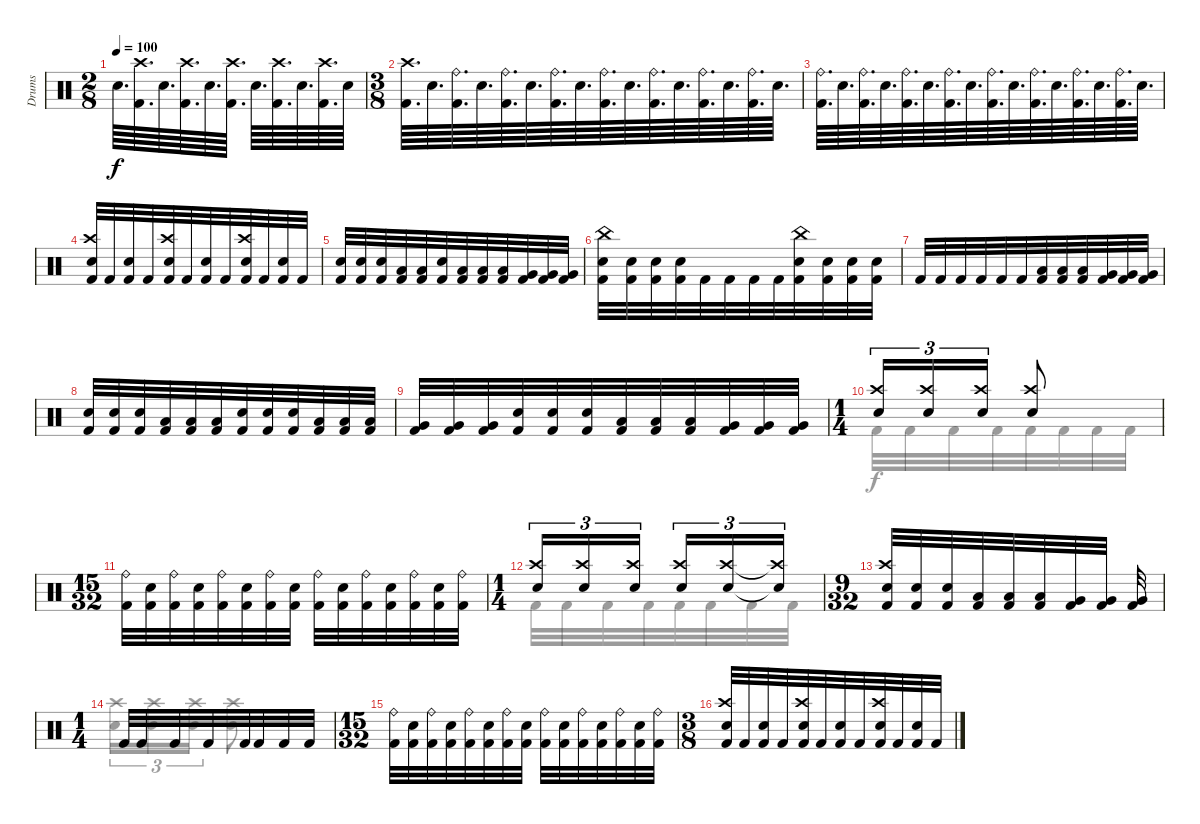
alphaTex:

\track ("Drums" "Drums") {instrument percussion}
\staff {score}
\articulation defaults
\voice
\ts (2 8)
\tempo 100
\clef neutral
\ks c "Electric Snare (hit)".64{d dy f}
("Crash high (hit)" "Kick (hit) 2").64{d} "Electric Snare (hit)".64{d} ("Crash high (hit)" "Kick (hit) 2").64{d} "Electric Snare (hit)".64{d} ("Crash high (hit)" "Kick (hit) 2").64{d} "Electric Snare (hit)".64{d} ("Crash high (hit)" "Kick (hit) 2").64{d} "Electric Snare (hit)".64{d} ("Crash high (hit)" "Kick (hit) 2").64{d} "Electric Snare (hit)".64 |
\ts (3 8)
("Crash high (hit)" "Kick (hit) 2").64{d} "Electric Snare (hit)".64{d} ("Ride (bell)" "Kick (hit) 2").64{d} "Electric Snare (hit)".64{d} ("Ride (bell)" "Kick (hit) 2").64{d} "Electric Snare (hit)".64{d} ("Ride (bell)" "Kick (hit) 2").64{d} "Electric Snare (hit)".64{d} ("Ride (bell)" "Kick (hit) 2").64{d} "Electric Snare (hit)".64{d} ("Ride (bell)" "Kick (hit) 2").64{d} "Electric Snare (hit)".64{d} ("Ride (bell)" "Kick (hit) 2").64{d} "Electric Snare (hit)".64{d} ("Ride (bell)" "Kick (hit) 2").64{d} "Electric Snare (hit)".64{d} |
("Ride (bell)" "Kick (hit) 2").64{d} "Electric Snare (hit)".64{d} ("Ride (bell)" "Kick (hit) 2").64{d} "Electric Snare (hit)".64{d} ("Ride (bell)" "Kick (hit) 2").64{d} "Electric Snare (hit)".64{d} ("Ride (bell)" "Kick (hit) 2").64{d} "Electric Snare (hit)".64{d} ("Ride (bell)" "Kick (hit) 2").64{d} "Electric Snare (hit)".64{d} ("Ride (bell)" "Kick (hit) 2").64{d} "Electric Snare (hit)".64{d} ("Ride (bell)" "Kick (hit) 2").64{d} "Electric Snare (hit)".64{d} ("Ride (bell)" "Kick (hit) 2").64{d} "Electric Snare (hit)".64{d} |
("Crash high (hit)" "Electric Snare (hit)" "Kick (hit) 2").32 "Kick (hit) 2".32 ("Electric Snare (hit)" "Kick (hit) 2").32 "Kick (hit) 2".32 ("Crash high (hit)" "Electric Snare (hit)" "Kick (hit) 2").32 "Kick (hit) 2".32 ("Electric Snare (hit)" "Kick (hit) 2").32 "Kick (hit) 2".32 ("Crash high (hit)" "Electric Snare (hit)" "Kick (hit) 2").32 "Kick (hit) 2".32 ("Electric Snare (hit)" "Kick (hit) 2").32 "Kick (hit) 2".32 |
("Electric Snare (hit)" "Kick (hit) 2").32 ("Electric Snare (hit)" "Kick (hit) 2").32 ("Electric Snare (hit)" "Kick (hit) 2").32 ("Low Tom (hit)" "Kick (hit) 2").32 ("Low Tom (hit)" "Kick (hit) 2").32 ("Electric Snare (hit)" "Kick (hit) 2").32 ("Low Tom (hit)" "Kick (hit) 2").32 ("Low Tom (hit)" "Kick (hit) 2").32 ("Low Tom (hit)" "Kick (hit) 2").32 ("Very Low Tom (hit)" "Kick (hit) 2").32 ("Very Low Tom (hit)" "Kick (hit) 2").32 ("Very Low Tom (hit)" "Kick (hit) 2").32 |
("China (hit)" "Electric Snare (hit)" "Kick (hit) 2").32 ("Electric Snare (hit)" "Kick (hit) 2").32 ("Electric Snare (hit)" "Kick (hit) 2").32 ("Electric Snare (hit)" "Kick (hit) 2").32 "Kick (hit) 2".32 "Kick (hit) 2".32 "Kick (hit) 2".32 "Kick (hit) 2".32 ("China (hit)" "Electric Snare (hit)" "Kick (hit) 2").32 ("Electric Snare (hit)" "Kick (hit) 2").32 ("Electric Snare (hit)" "Kick (hit) 2").32 ("Electric Snare (hit)" "Kick (hit) 2").32 |
"Kick (hit) 2".32 "Kick (hit) 2".32 "Kick (hit) 2".32 "Kick (hit) 2".32 "Kick (hit) 2".32 "Kick (hit) 2".32 ("Low Tom (hit)" "Kick (hit) 2").32 ("Low Tom (hit)" "Kick (hit) 2").32 ("Low Tom (hit)" "Kick (hit) 2").32 ("Very Low Tom (hit)" "Kick (hit) 2").32 ("Very Low Tom (hit)" "Kick (hit) 2").32 ("Very Low Tom (hit)" "Kick (hit) 2").32 |
("Electric Snare (hit)" "Kick (hit) 2").32 ("Electric Snare (hit)" "Kick (hit) 2").32 ("Electric Snare (hit)" "Kick (hit) 2").32 ("Low Tom (hit)" "Kick (hit) 2").32 ("Low Tom (hit)" "Kick (hit) 2").32 ("Low Tom (hit)" "Kick (hit) 2").32 ("Electric Snare (hit)" "Kick (hit) 2").32 ("Electric Snare (hit)" "Kick (hit) 2").32 ("Electric Snare (hit)" "Kick (hit) 2").32 ("Low Tom (hit)" "Kick (hit) 2").32 ("Low Tom (hit)" "Kick (hit) 2").32 ("Low Tom (hit)" "Kick (hit) 2").32 |
("Very Low Tom (hit)" "Kick (hit) 2").32 ("Very Low Tom (hit)" "Kick (hit) 2").32 ("Very Low Tom (hit)" "Kick (hit) 2").32 ("Electric Snare (hit)" "Kick (hit) 2").32 ("Electric Snare (hit)" "Kick (hit) 2").32 ("Electric Snare (hit)" "Kick (hit) 2").32 ("Low Tom (hit)" "Kick (hit) 2").32 ("Low Tom (hit)" "Kick (hit) 2").32 ("Low Tom (hit)" "Kick (hit) 2").32 ("Very Low Tom (hit)" "Kick (hit) 2").32 ("Very Low Tom (hit)" "Kick (hit) 2").32 ("Very Low Tom (hit)" "Kick (hit) 2").32 |
\ts (1 4)
("Crash high (hit)" "Electric Snare (hit)").16{tu (3 2)} ("Crash high (hit)" "Electric Snare (hit)").16{tu (3 2)} ("Crash high (hit)" "Electric Snare (hit)").16{tu (3 2)} ("Crash high (hit)" "Electric Snare (hit)").8 |
\ts (15 32)
("Ride (bell)" "Kick (hit) 2").32 ("Electric Snare (hit)" "Kick (hit) 2").32 ("Ride (bell)" "Kick (hit) 2").32 ("Electric Snare (hit)" "Kick (hit) 2").32 ("Ride (bell)" "Kick (hit) 2").32 ("Electric Snare (hit)" "Kick (hit) 2").32 ("Ride (bell)" "Kick (hit) 2").32 ("Electric Snare (hit)" "Kick (hit) 2").32 ("Ride (bell)" "Kick (hit) 2").32 ("Electric Snare (hit)" "Kick (hit) 2").32 ("Ride (bell)" "Kick (hit) 2").32 ("Electric Snare (hit)" "Kick (hit) 2").32 ("Ride (bell)" "Kick (hit) 2").32 ("Electric Snare (hit)" "Kick (hit) 2").32 ("Ride (bell)" "Kick (hit) 2").32 |
\ts (1 4)
("Crash high (hit)" "Electric Snare (hit)").16{tu (3 2)} ("Crash high (hit)" "Electric Snare (hit)").16{tu (3 2)} ("Crash high (hit)" "Electric Snare (hit)").16{tu (3 2) beam splitsecondary} ("Crash high (hit)" "Electric Snare (hit)").16{tu (3 2)} ("Crash high (hit)" "Electric Snare (hit)").16{tu (3 2)} ("Crash high (hit)"{t} "Electric Snare (hit)"{t}).16{tu (3 2)} |
\ts (9 32)
("Crash high (hit)" "Electric Snare (hit)" "Kick (hit) 2").32 ("Electric Snare (hit)" "Kick (hit) 2").32 ("Electric Snare (hit)" "Kick (hit) 2").32 ("Low Tom (hit)" "Kick (hit) 2").32 ("Low Tom (hit)" "Kick (hit) 2").32 ("Low Tom (hit)" "Kick (hit) 2").32 ("Very Low Tom (hit)" "Kick (hit) 2").32 ("Very Low Tom (hit)" "Kick (hit) 2").32 ("Very Low Tom (hit)" "Kick (hit) 2").32 |
\ts (1 4)
"Kick (hit) 2".32 "Kick (hit) 2".32 "Kick (hit) 2".32 "Kick (hit) 2".32 "Kick (hit) 2".32 "Kick (hit) 2".32 "Kick (hit) 2".32 "Kick (hit) 2".32 |
\ts (15 32)
("Ride (bell)" "Kick (hit) 2").32 ("Electric Snare (hit)" "Kick (hit) 2").32 ("Ride (bell)" "Kick (hit) 2").32 ("Electric Snare (hit)" "Kick (hit) 2").32 ("Ride (bell)" "Kick (hit) 2").32 ("Electric Snare (hit)" "Kick (hit) 2").32 ("Ride (bell)" "Kick (hit) 2").32 ("Electric Snare (hit)" "Kick (hit) 2").32 ("Ride (bell)" "Kick (hit) 2").32 ("Electric Snare (hit)" "Kick (hit) 2").32 ("Ride (bell)" "Kick (hit) 2").32 ("Electric Snare (hit)" "Kick (hit) 2").32 ("Ride (bell)" "Kick (hit) 2").32 ("Electric Snare (hit)" "Kick (hit) 2").32 ("Ride (bell)" "Kick (hit) 2").32 |
\ts (3 8)
("Crash high (hit)" "Electric Snare (hit)" "Kick (hit) 2").32 "Kick (hit) 2".32 ("Electric Snare (hit)" "Kick (hit) 2").32 "Kick (hit) 2".32 ("Crash high (hit)" "Electric Snare (hit)" "Kick (hit) 2").32 "Kick (hit) 2".32 ("Electric Snare (hit)" "Kick (hit) 2").32 "Kick (hit) 2".32 ("Crash high (hit)" "Electric Snare (hit)" "Kick (hit) 2").32 "Kick (hit) 2".32 ("Electric Snare (hit)" "Kick (hit) 2").32 "Kick (hit) 2".32
\voice
\clef neutral
\ottava regular
\simile none
\ks c
|
|
|
|
|
|
|
|
|
"Kick (hit) 2".32 "Kick (hit) 2".32 "Kick (hit) 2".32 "Kick (hit) 2".32 "Kick (hit) 2".32 "Kick (hit) 2".32 "Kick (hit) 2".32 "Kick (hit) 2".32 |
|
"Kick (hit) 2".32 "Kick (hit) 2".32 "Kick (hit) 2".32 "Kick (hit) 2".32 "Kick (hit) 2".32 "Kick (hit) 2".32 "Kick (hit) 2".32 "Kick (hit) 2".32 |
|
("Crash high (hit)" "Electric Snare (hit)").16{tu (3 2)} ("Crash high (hit)" "Electric Snare (hit)").16{tu (3 2)} ("Crash high (hit)" "Electric Snare (hit)").16{tu (3 2)} ("Crash high (hit)" "Electric Snare (hit)").8 |
|
